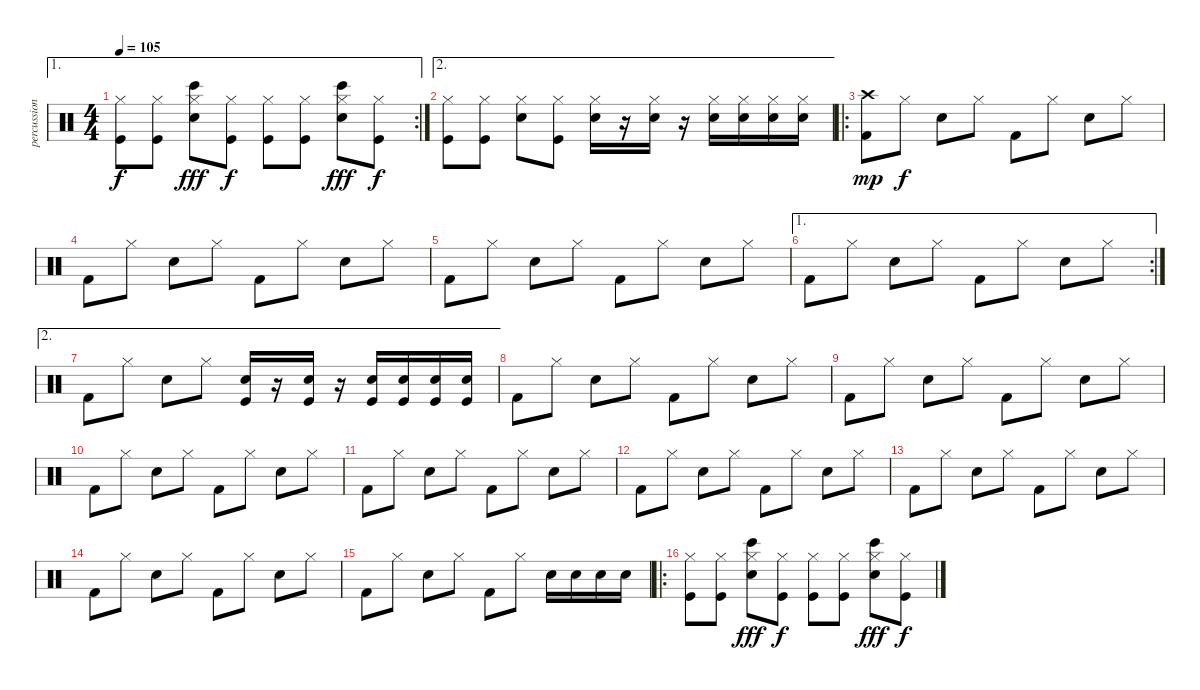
\track ("percussions" "percussion") {instrument percussion}
\staff {score}
\articulation defaults
\ae 1
\rc 2
\ts (4 4)
\tempo 105
\clef neutral
\ks c
("Hi-Hat (closed)" "Kick (hit)").8{dy f} ("Hi-Hat (closed)" "Kick (hit)").8 ("Hi-Hat (closed)" "Bongo High (hit)" "Electric Snare (hit)").8{dy fff} ("Hi-Hat (closed)" "Kick (hit)").8{dy f} ("Hi-Hat (closed)" "Kick (hit)").8 ("Hi-Hat (closed)" "Kick (hit)").8 ("Hi-Hat (closed)" "Bongo High (hit)" "Electric Snare (hit)").8{dy fff} ("Hi-Hat (closed)" "Kick (hit)").8{dy f} |
\ae 2
("Hi-Hat (closed)" "Kick (hit)").8 ("Hi-Hat (closed)" "Kick (hit)").8 ("Hi-Hat (closed)" "Electric Snare (hit)").8 ("Hi-Hat (closed)" "Kick (hit)").8 ("Hi-Hat (closed)" "Electric Snare (hit)").16 r.16 ("Hi-Hat (closed)" "Electric Snare (hit)").16 r.16 ("Hi-Hat (closed)" "Electric Snare (hit)").16 ("Hi-Hat (closed)" "Electric Snare (hit)").16 ("Hi-Hat (closed)" "Electric Snare (hit)").16 ("Hi-Hat (closed)" "Electric Snare (hit)").16 |
\ro
("Crash high (hit)" "Kick (hit) 2").8{dy mp} "Hi-Hat (closed)".8{dy f} "Electric Snare (hit)".8 "Hi-Hat (closed)".8 "Kick (hit) 2".8 "Hi-Hat (closed)".8 "Electric Snare (hit)".8 "Hi-Hat (closed)".8 |
"Kick (hit) 2".8 "Hi-Hat (closed)".8 "Electric Snare (hit)".8 "Hi-Hat (closed)".8 "Kick (hit) 2".8 "Hi-Hat (closed)".8 "Electric Snare (hit)".8 "Hi-Hat (closed)".8 |
"Kick (hit) 2".8 "Hi-Hat (closed)".8 "Electric Snare (hit)".8 "Hi-Hat (closed)".8 "Kick (hit) 2".8 "Hi-Hat (closed)".8 "Electric Snare (hit)".8 "Hi-Hat (closed)".8 |
\ae 1
\rc 2 "Kick (hit) 2".8 "Hi-Hat (closed)".8 "Electric Snare (hit)".8 "Hi-Hat (closed)".8 "Kick (hit) 2".8 "Hi-Hat (closed)".8 "Electric Snare (hit)".8 "Hi-Hat (closed)".8
|
\ae 2 "Kick (hit) 2".8 "Hi-Hat (closed)".8 "Electric Snare (hit)".8 "Hi-Hat (closed)".8
("Kick (hit)" "Electric Snare (hit)").16 r.16 ("Kick (hit)" "Electric Snare (hit)").16 r.16 ("Kick (hit)" "Electric Snare (hit)").16 ("Kick (hit)" "Electric Snare (hit)").16 ("Kick (hit)" "Electric Snare (hit)").16 ("Kick (hit)" "Electric Snare (hit)").16 |
"Kick (hit) 2".8 "Hi-Hat (closed)".8 "Electric Snare (hit)".8 "Hi-Hat (closed)".8 "Kick (hit) 2".8 "Hi-Hat (closed)".8 "Electric Snare (hit)".8 "Hi-Hat (closed)".8 |
"Kick (hit) 2".8 "Hi-Hat (closed)".8 "Electric Snare (hit)".8 "Hi-Hat (closed)".8 "Kick (hit) 2".8 "Hi-Hat (closed)".8 "Electric Snare (hit)".8 "Hi-Hat (closed)".8 |
"Kick (hit) 2".8 "Hi-Hat (closed)".8 "Electric Snare (hit)".8 "Hi-Hat (closed)".8 "Kick (hit) 2".8 "Hi-Hat (closed)".8 "Electric Snare (hit)".8 "Hi-Hat (closed)".8 |
"Kick (hit) 2".8 "Hi-Hat (closed)".8 "Electric Snare (hit)".8 "Hi-Hat (closed)".8 "Kick (hit) 2".8 "Hi-Hat (closed)".8 "Electric Snare (hit)".8 "Hi-Hat (closed)".8 |
"Kick (hit) 2".8 "Hi-Hat (closed)".8 "Electric Snare (hit)".8 "Hi-Hat (closed)".8 "Kick (hit) 2".8 "Hi-Hat (closed)".8 "Electric Snare (hit)".8 "Hi-Hat (closed)".8 |
"Kick (hit) 2".8 "Hi-Hat (closed)".8 "Electric Snare (hit)".8 "Hi-Hat (closed)".8 "Kick (hit) 2".8 "Hi-Hat (closed)".8 "Electric Snare (hit)".8 "Hi-Hat (closed)".8 |
"Kick (hit) 2".8 "Hi-Hat (closed)".8 "Electric Snare (hit)".8 "Hi-Hat (closed)".8 "Kick (hit) 2".8 "Hi-Hat (closed)".8 "Electric Snare (hit)".8 "Hi-Hat (closed)".8 |
"Kick (hit) 2".8 "Hi-Hat (closed)".8 "Electric Snare (hit)".8 "Hi-Hat (closed)".8 "Kick (hit) 2".8 "Hi-Hat (closed)".8 "Electric Snare (hit)".16 "Electric Snare (hit)".16 "Electric Snare (hit)".16 "Electric Snare (hit)".16 |
\ro
("Hi-Hat (closed)" "Kick (hit)").8 ("Hi-Hat (closed)" "Kick (hit)").8 ("Hi-Hat (closed)" "Bongo High (hit)" "Electric Snare (hit)").8{dy fff} ("Hi-Hat (closed)" "Kick (hit)").8{dy f} ("Hi-Hat (closed)" "Kick (hit)").8 ("Hi-Hat (closed)" "Kick (hit)").8 ("Hi-Hat (closed)" "Bongo High (hit)" "Electric Snare (hit)").8{dy fff} ("Hi-Hat (closed)" "Kick (hit)").8{dy f}
